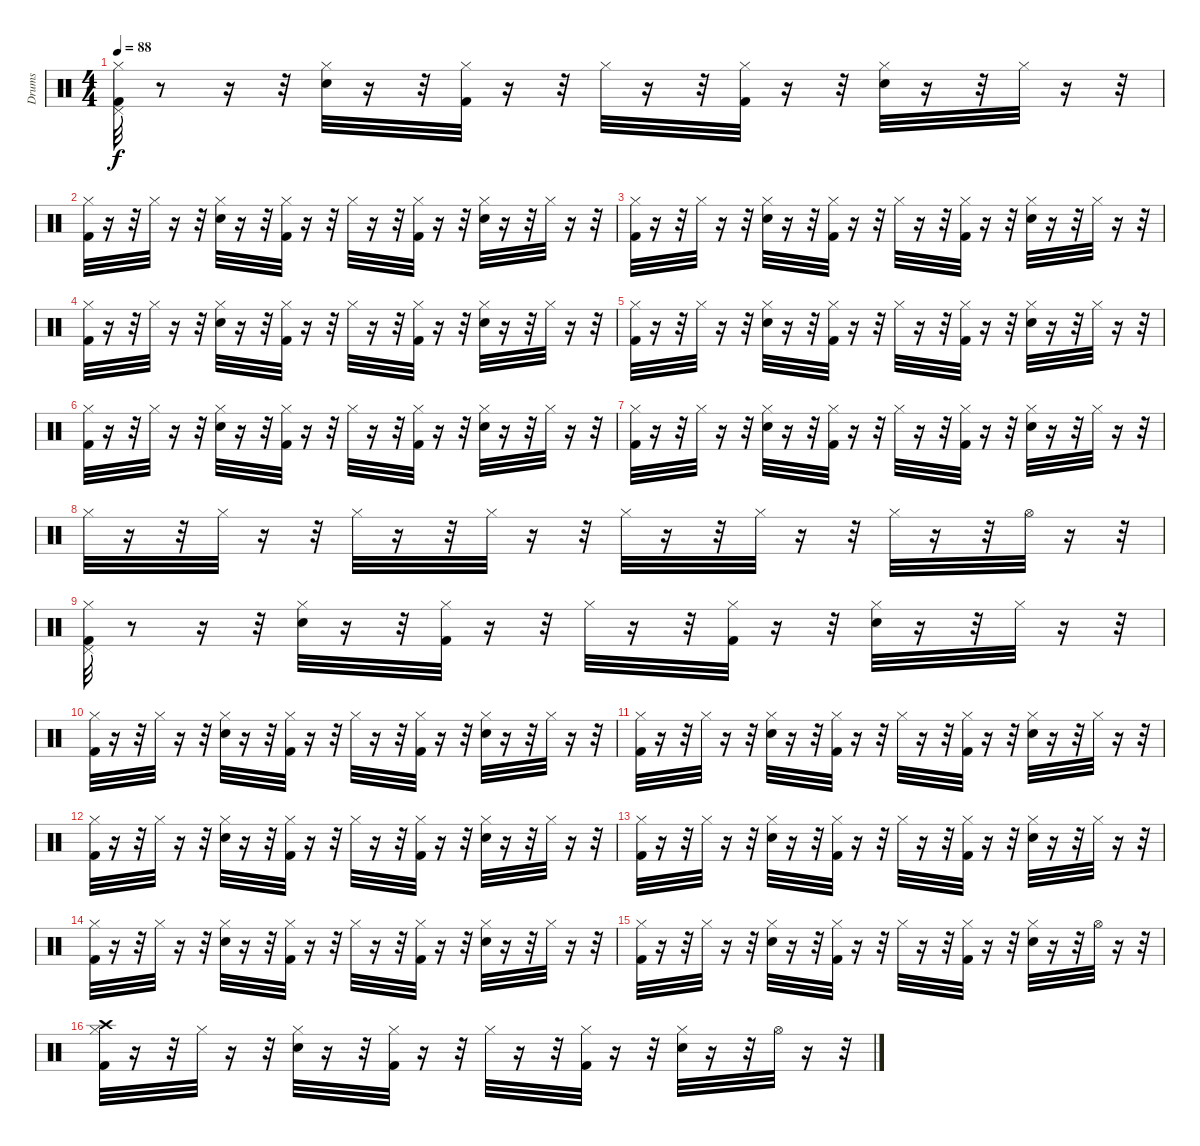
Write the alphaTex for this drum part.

\track ("Drums" "Drums") {instrument percussion}
\staff {score}
\articulation defaults
\ts (4 4)
\tempo 88
\clef neutral
\ks c
("Hi-Hat (closed)" "Pedal Hi-Hat (hit)" "Kick (hit) 2").32{dy f} r.8 r.16 r.32 ("Hi-Hat (closed)" "Electric Snare (hit)").32 r.16 r.32 ("Kick (hit) 2" "Hi-Hat (closed)").32 r.16 r.32 "Hi-Hat (closed)".32 r.16 r.32 ("Kick (hit) 2" "Hi-Hat (closed)").32 r.16 r.32 ("Hi-Hat (closed)" "Electric Snare (hit)").32 r.16 r.32 "Hi-Hat (closed)".32 r.16 r.32 |
("Hi-Hat (closed)" "Kick (hit) 2").32 r.16 r.32 "Hi-Hat (closed)".32 r.16 r.32 ("Hi-Hat (closed)" "Electric Snare (hit)").32 r.16 r.32 ("Kick (hit) 2" "Hi-Hat (closed)").32 r.16 r.32 "Hi-Hat (closed)".32 r.16 r.32 ("Kick (hit) 2" "Hi-Hat (closed)").32 r.16 r.32 ("Hi-Hat (closed)" "Electric Snare (hit)").32 r.16 r.32 "Hi-Hat (closed)".32 r.16 r.32 |
("Hi-Hat (closed)" "Kick (hit) 2").32 r.16 r.32 "Hi-Hat (closed)".32 r.16 r.32 ("Hi-Hat (closed)" "Electric Snare (hit)").32 r.16 r.32 ("Kick (hit) 2" "Hi-Hat (closed)").32 r.16 r.32 "Hi-Hat (closed)".32 r.16 r.32 ("Kick (hit) 2" "Hi-Hat (closed)").32 r.16 r.32 ("Hi-Hat (closed)" "Electric Snare (hit)").32 r.16 r.32 "Hi-Hat (closed)".32 r.16 r.32 |
("Hi-Hat (closed)" "Kick (hit) 2").32 r.16 r.32 "Hi-Hat (closed)".32 r.16 r.32 ("Hi-Hat (closed)" "Electric Snare (hit)").32 r.16 r.32 ("Kick (hit) 2" "Hi-Hat (closed)").32 r.16 r.32 "Hi-Hat (closed)".32 r.16 r.32 ("Kick (hit) 2" "Hi-Hat (closed)").32 r.16 r.32 ("Hi-Hat (closed)" "Electric Snare (hit)").32 r.16 r.32 "Hi-Hat (closed)".32 r.16 r.32 |
("Hi-Hat (closed)" "Kick (hit) 2").32 r.16 r.32 "Hi-Hat (closed)".32 r.16 r.32 ("Hi-Hat (closed)" "Electric Snare (hit)").32 r.16 r.32 ("Kick (hit) 2" "Hi-Hat (closed)").32 r.16 r.32 "Hi-Hat (closed)".32 r.16 r.32 ("Kick (hit) 2" "Hi-Hat (closed)").32 r.16 r.32 ("Hi-Hat (closed)" "Electric Snare (hit)").32 r.16 r.32 "Hi-Hat (closed)".32 r.16 r.32 |
("Hi-Hat (closed)" "Kick (hit) 2").32 r.16 r.32 "Hi-Hat (closed)".32 r.16 r.32 ("Hi-Hat (closed)" "Electric Snare (hit)").32 r.16 r.32 ("Kick (hit) 2" "Hi-Hat (closed)").32 r.16 r.32 "Hi-Hat (closed)".32 r.16 r.32 ("Kick (hit) 2" "Hi-Hat (closed)").32 r.16 r.32 ("Hi-Hat (closed)" "Electric Snare (hit)").32 r.16 r.32 "Hi-Hat (closed)".32 r.16 r.32 |
("Hi-Hat (closed)" "Kick (hit) 2").32 r.16 r.32 "Hi-Hat (closed)".32 r.16 r.32 ("Hi-Hat (closed)" "Electric Snare (hit)").32 r.16 r.32 ("Kick (hit) 2" "Hi-Hat (closed)").32 r.16 r.32 "Hi-Hat (closed)".32 r.16 r.32 ("Kick (hit) 2" "Hi-Hat (closed)").32 r.16 r.32 ("Hi-Hat (closed)" "Electric Snare (hit)").32 r.16 r.32 "Hi-Hat (closed)".32 r.16 r.32 |
"Hi-Hat (closed)".32 r.16 r.32 "Hi-Hat (closed)".32 r.16 r.32 "Hi-Hat (closed)".32 r.16 r.32 "Hi-Hat (closed)".32 r.16 r.32 "Hi-Hat (closed)".32 r.16 r.32 "Hi-Hat (closed)".32 r.16 r.32 "Hi-Hat (closed)".32 r.16 r.32 "Hi-Hat (open)".32 r.16 r.32 |
("Hi-Hat (closed)" "Pedal Hi-Hat (hit)" "Kick (hit) 2").32 r.8 r.16 r.32 ("Hi-Hat (closed)" "Electric Snare (hit)").32 r.16 r.32 ("Kick (hit) 2" "Hi-Hat (closed)").32 r.16 r.32 "Hi-Hat (closed)".32 r.16 r.32 ("Kick (hit) 2" "Hi-Hat (closed)").32 r.16 r.32 ("Hi-Hat (closed)" "Electric Snare (hit)").32 r.16 r.32 "Hi-Hat (closed)".32 r.16 r.32 |
("Hi-Hat (closed)" "Kick (hit) 2").32 r.16 r.32 "Hi-Hat (closed)".32 r.16 r.32 ("Hi-Hat (closed)" "Electric Snare (hit)").32 r.16 r.32 ("Kick (hit) 2" "Hi-Hat (closed)").32 r.16 r.32 "Hi-Hat (closed)".32 r.16 r.32 ("Kick (hit) 2" "Hi-Hat (closed)").32 r.16 r.32 ("Hi-Hat (closed)" "Electric Snare (hit)").32 r.16 r.32 "Hi-Hat (closed)".32 r.16 r.32 |
("Hi-Hat (closed)" "Kick (hit) 2").32 r.16 r.32 "Hi-Hat (closed)".32 r.16 r.32 ("Hi-Hat (closed)" "Electric Snare (hit)").32 r.16 r.32 ("Kick (hit) 2" "Hi-Hat (closed)").32 r.16 r.32 "Hi-Hat (closed)".32 r.16 r.32 ("Kick (hit) 2" "Hi-Hat (closed)").32 r.16 r.32 ("Hi-Hat (closed)" "Electric Snare (hit)").32 r.16 r.32 "Hi-Hat (closed)".32 r.16 r.32 |
("Hi-Hat (closed)" "Kick (hit) 2").32 r.16 r.32 "Hi-Hat (closed)".32 r.16 r.32 ("Hi-Hat (closed)" "Electric Snare (hit)").32 r.16 r.32 ("Kick (hit) 2" "Hi-Hat (closed)").32 r.16 r.32 "Hi-Hat (closed)".32 r.16 r.32 ("Kick (hit) 2" "Hi-Hat (closed)").32 r.16 r.32 ("Hi-Hat (closed)" "Electric Snare (hit)").32 r.16 r.32 "Hi-Hat (closed)".32 r.16 r.32 |
("Hi-Hat (closed)" "Kick (hit) 2").32 r.16 r.32 "Hi-Hat (closed)".32 r.16 r.32 ("Hi-Hat (closed)" "Electric Snare (hit)").32 r.16 r.32 ("Kick (hit) 2" "Hi-Hat (closed)").32 r.16 r.32 "Hi-Hat (closed)".32 r.16 r.32 ("Kick (hit) 2" "Hi-Hat (closed)").32 r.16 r.32 ("Hi-Hat (closed)" "Electric Snare (hit)").32 r.16 r.32 "Hi-Hat (closed)".32 r.16 r.32 |
("Hi-Hat (closed)" "Kick (hit) 2").32 r.16 r.32 "Hi-Hat (closed)".32 r.16 r.32 ("Hi-Hat (closed)" "Electric Snare (hit)").32 r.16 r.32 ("Kick (hit) 2" "Hi-Hat (closed)").32 r.16 r.32 "Hi-Hat (closed)".32 r.16 r.32 ("Kick (hit) 2" "Hi-Hat (closed)").32 r.16 r.32 ("Hi-Hat (closed)" "Electric Snare (hit)").32 r.16 r.32 "Hi-Hat (closed)".32 r.16 r.32 |
("Hi-Hat (closed)" "Kick (hit) 2").32 r.16 r.32 "Hi-Hat (closed)".32 r.16 r.32 ("Hi-Hat (closed)" "Electric Snare (hit)").32 r.16 r.32 ("Kick (hit) 2" "Hi-Hat (closed)").32 r.16 r.32 "Hi-Hat (closed)".32 r.16 r.32 ("Kick (hit) 2" "Hi-Hat (closed)").32 r.16 r.32 ("Hi-Hat (closed)" "Electric Snare (hit)").32 r.16 r.32 "Hi-Hat (open)".32 r.16 r.32 |
("Crash high (hit)" "Hi-Hat (closed)" "Kick (hit) 2").32 r.16 r.32 "Hi-Hat (closed)".32 r.16 r.32 ("Hi-Hat (closed)" "Electric Snare (hit)").32 r.16 r.32 ("Kick (hit) 2" "Hi-Hat (closed)").32 r.16 r.32 "Hi-Hat (closed)".32 r.16 r.32 ("Kick (hit) 2" "Hi-Hat (closed)").32 r.16 r.32 ("Hi-Hat (closed)" "Electric Snare (hit)").32 r.16 r.32 "Hi-Hat (open)".32 r.16 r.32
